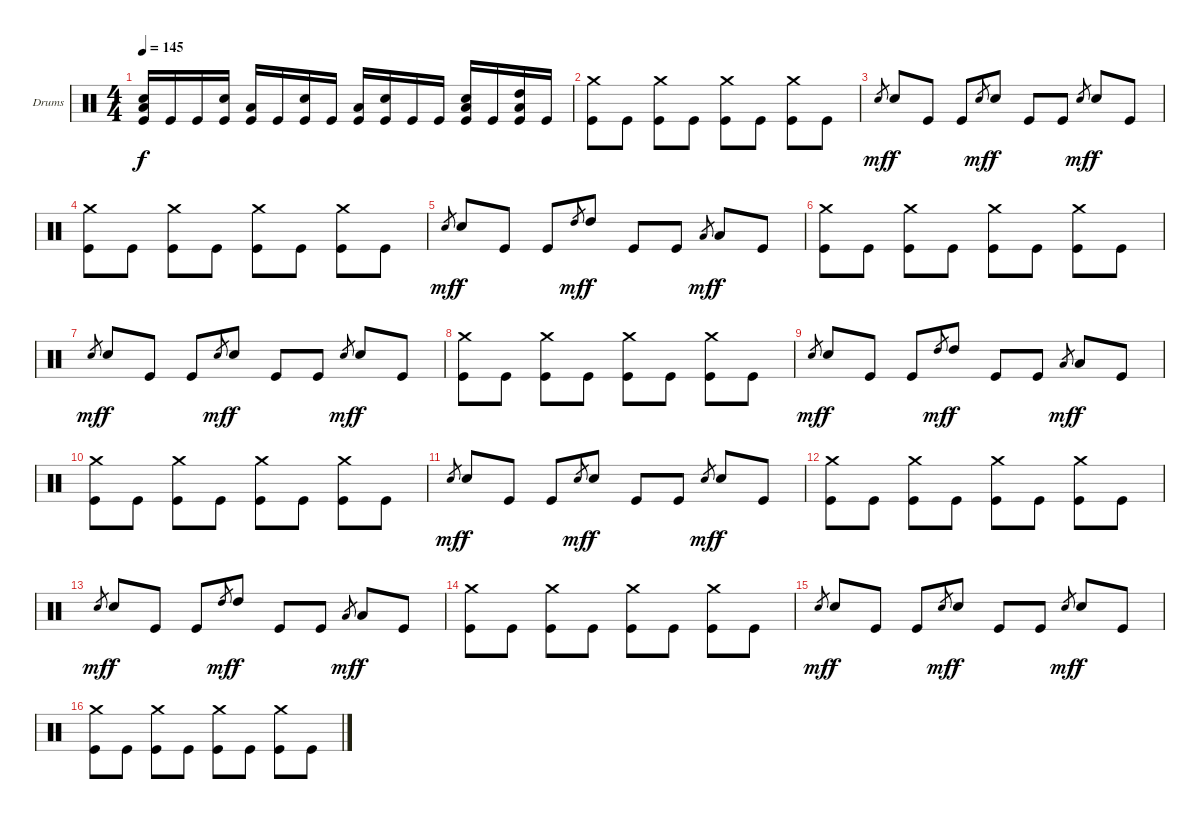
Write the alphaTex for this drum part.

\bracketExtendMode groupsimilarinstruments
\firstSystemTrackNameOrientation horizontal
\otherSystemsTrackNameOrientation horizontal
\track ("Drumkit" "Drums") {instrument percussion}
\staff {score}
\articulation defaults
\ts (4 4)
\tempo 145
\clef neutral
\ks c
("Snare (hit) 2" "Low Tom (hit)" "Kick (hit)").16{dy f} "Kick (hit)".16 "Kick (hit)".16 ("Snare (hit) 2" "Kick (hit)").16 ("Low Tom (hit)" "Kick (hit)").16 "Kick (hit)".16 ("Snare (hit) 2" "Kick (hit)").16 "Kick (hit)".16 ("Low Tom (hit)" "Kick (hit)").16 ("Snare (hit) 2" "Kick (hit)").16 "Kick (hit)".16 "Kick (hit)".16 ("Snare (hit) 2" "Low Tom (hit)" "Kick (hit)").16 "Kick (hit)".16 ("High Tom (hit)" "Low Tom (hit)" "Kick (hit)").16 "Kick (hit)".16 |
\section ("" "")
("Crash medium (hit)" "Kick (hit)").8 "Kick (hit)".8 ("Crash medium (hit)" "Kick (hit)").8 "Kick (hit)".8 ("Crash medium (hit)" "Kick (hit)").8 "Kick (hit)".8 ("Crash medium (hit)" "Kick (hit)").8 "Kick (hit)".8 |
"Snare (hit) 2".8{gr dy mf} "Snare (hit) 2".8{dy f} "Kick (hit)".8 "Kick (hit)".8 "Snare (hit) 2".8{gr dy mf} "Snare (hit) 2".8{dy f} "Kick (hit)".8 "Kick (hit)".8 "Snare (hit) 2".8{gr dy mf} "Snare (hit) 2".8{dy f} "Kick (hit)".8 |
("Crash medium (hit)" "Kick (hit)").8 "Kick (hit)".8 ("Crash medium (hit)" "Kick (hit)").8 "Kick (hit)".8 ("Crash medium (hit)" "Kick (hit)").8 "Kick (hit)".8 ("Crash medium (hit)" "Kick (hit)").8 "Kick (hit)".8 |
"Snare (hit) 2".8{gr dy mf} "Snare (hit) 2".8{dy f} "Kick (hit)".8 "Kick (hit)".8 "High Tom (hit)".8{gr dy mf} "High Tom (hit)".8{dy f} "Kick (hit)".8 "Kick (hit)".8 "Low Tom (hit)".8{gr dy mf} "Low Tom (hit)".8{dy f} "Kick (hit)".8 |
("Crash medium (hit)" "Kick (hit)").8 "Kick (hit)".8 ("Crash medium (hit)" "Kick (hit)").8 "Kick (hit)".8 ("Crash medium (hit)" "Kick (hit)").8 "Kick (hit)".8 ("Crash medium (hit)" "Kick (hit)").8 "Kick (hit)".8 |
"Snare (hit) 2".8{gr dy mf} "Snare (hit) 2".8{dy f} "Kick (hit)".8 "Kick (hit)".8 "Snare (hit) 2".8{gr dy mf} "Snare (hit) 2".8{dy f} "Kick (hit)".8 "Kick (hit)".8 "Snare (hit) 2".8{gr dy mf} "Snare (hit) 2".8{dy f} "Kick (hit)".8 |
("Crash medium (hit)" "Kick (hit)").8 "Kick (hit)".8 ("Crash medium (hit)" "Kick (hit)").8 "Kick (hit)".8 ("Crash medium (hit)" "Kick (hit)").8 "Kick (hit)".8 ("Crash medium (hit)" "Kick (hit)").8 "Kick (hit)".8 |
"Snare (hit) 2".8{gr dy mf} "Snare (hit) 2".8{dy f} "Kick (hit)".8 "Kick (hit)".8 "High Tom (hit)".8{gr dy mf} "High Tom (hit)".8{dy f} "Kick (hit)".8 "Kick (hit)".8 "Low Tom (hit)".8{gr dy mf} "Low Tom (hit)".8{dy f} "Kick (hit)".8 |
("Crash medium (hit)" "Kick (hit)").8 "Kick (hit)".8 ("Crash medium (hit)" "Kick (hit)").8 "Kick (hit)".8 ("Crash medium (hit)" "Kick (hit)").8 "Kick (hit)".8 ("Crash medium (hit)" "Kick (hit)").8 "Kick (hit)".8 |
"Snare (hit) 2".8{gr dy mf} "Snare (hit) 2".8{dy f} "Kick (hit)".8 "Kick (hit)".8 "Snare (hit) 2".8{gr dy mf} "Snare (hit) 2".8{dy f} "Kick (hit)".8 "Kick (hit)".8 "Snare (hit) 2".8{gr dy mf} "Snare (hit) 2".8{dy f} "Kick (hit)".8 |
("Crash medium (hit)" "Kick (hit)").8 "Kick (hit)".8 ("Crash medium (hit)" "Kick (hit)").8 "Kick (hit)".8 ("Crash medium (hit)" "Kick (hit)").8 "Kick (hit)".8 ("Crash medium (hit)" "Kick (hit)").8 "Kick (hit)".8 |
"Snare (hit) 2".8{gr dy mf} "Snare (hit) 2".8{dy f} "Kick (hit)".8 "Kick (hit)".8 "High Tom (hit)".8{gr dy mf} "High Tom (hit)".8{dy f} "Kick (hit)".8 "Kick (hit)".8 "Low Tom (hit)".8{gr dy mf} "Low Tom (hit)".8{dy f} "Kick (hit)".8 |
("Crash medium (hit)" "Kick (hit)").8 "Kick (hit)".8 ("Crash medium (hit)" "Kick (hit)").8 "Kick (hit)".8 ("Crash medium (hit)" "Kick (hit)").8 "Kick (hit)".8 ("Crash medium (hit)" "Kick (hit)").8 "Kick (hit)".8 |
"Snare (hit) 2".8{gr dy mf} "Snare (hit) 2".8{dy f} "Kick (hit)".8 "Kick (hit)".8 "Snare (hit) 2".8{gr dy mf} "Snare (hit) 2".8{dy f} "Kick (hit)".8 "Kick (hit)".8 "Snare (hit) 2".8{gr dy mf} "Snare (hit) 2".8{dy f} "Kick (hit)".8 |
("Crash medium (hit)" "Kick (hit)").8 "Kick (hit)".8 ("Crash medium (hit)" "Kick (hit)").8 "Kick (hit)".8 ("Crash medium (hit)" "Kick (hit)").8 "Kick (hit)".8 ("Crash medium (hit)" "Kick (hit)").8 "Kick (hit)".8
